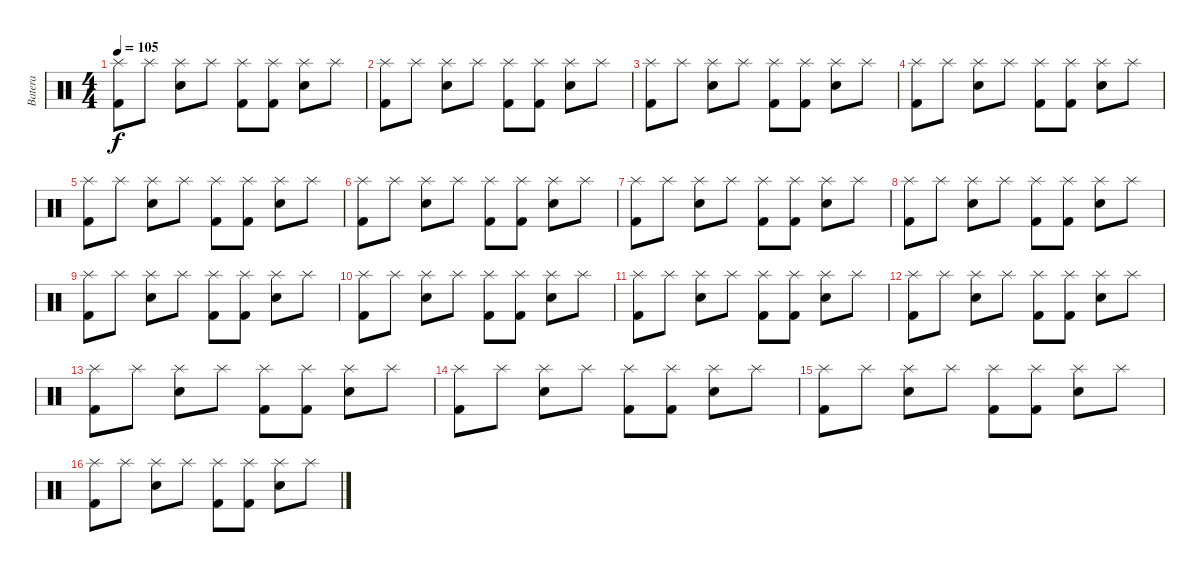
\track ("Batera" "Batera") {instrument percussion}
\staff {score}
\articulation defaults
\ts (4 4)
\tempo 105
\clef neutral
\ks c
("Splash (hit)" "Kick (hit) 2").8{dy f} "Splash (hit)".8 ("Splash (hit)" "Snare (hit) 2").8 "Splash (hit)".8 ("Splash (hit)" "Kick (hit) 2").8 ("Splash (hit)" "Kick (hit) 2").8 ("Splash (hit)" "Snare (hit) 2").8 "Splash (hit)".8 |
("Splash (hit)" "Kick (hit) 2").8 "Splash (hit)".8 ("Splash (hit)" "Snare (hit) 2").8 "Splash (hit)".8 ("Splash (hit)" "Kick (hit) 2").8 ("Splash (hit)" "Kick (hit) 2").8 ("Splash (hit)" "Snare (hit) 2").8 "Splash (hit)".8 |
("Splash (hit)" "Kick (hit) 2").8 "Splash (hit)".8 ("Splash (hit)" "Snare (hit) 2").8 "Splash (hit)".8 ("Splash (hit)" "Kick (hit) 2").8 ("Splash (hit)" "Kick (hit) 2").8 ("Splash (hit)" "Snare (hit) 2").8 "Splash (hit)".8 |
("Splash (hit)" "Kick (hit) 2").8 "Splash (hit)".8 ("Splash (hit)" "Snare (hit) 2").8 "Splash (hit)".8 ("Splash (hit)" "Kick (hit) 2").8 ("Splash (hit)" "Kick (hit) 2").8 ("Splash (hit)" "Snare (hit) 2").8 "Splash (hit)".8 |
("Splash (hit)" "Kick (hit) 2").8 "Splash (hit)".8 ("Splash (hit)" "Snare (hit) 2").8 "Splash (hit)".8 ("Splash (hit)" "Kick (hit) 2").8 ("Splash (hit)" "Kick (hit) 2").8 ("Splash (hit)" "Snare (hit) 2").8 "Splash (hit)".8 |
("Splash (hit)" "Kick (hit) 2").8 "Splash (hit)".8 ("Splash (hit)" "Snare (hit) 2").8 "Splash (hit)".8 ("Splash (hit)" "Kick (hit) 2").8 ("Splash (hit)" "Kick (hit) 2").8 ("Splash (hit)" "Snare (hit) 2").8 "Splash (hit)".8 |
("Splash (hit)" "Kick (hit) 2").8 "Splash (hit)".8 ("Splash (hit)" "Snare (hit) 2").8 "Splash (hit)".8 ("Splash (hit)" "Kick (hit) 2").8 ("Splash (hit)" "Kick (hit) 2").8 ("Splash (hit)" "Snare (hit) 2").8 "Splash (hit)".8 |
("Splash (hit)" "Kick (hit) 2").8 "Splash (hit)".8 ("Splash (hit)" "Snare (hit) 2").8 "Splash (hit)".8 ("Splash (hit)" "Kick (hit) 2").8 ("Splash (hit)" "Kick (hit) 2").8 ("Splash (hit)" "Snare (hit) 2").8 "Splash (hit)".8 |
("Splash (hit)" "Kick (hit) 2").8 "Splash (hit)".8 ("Splash (hit)" "Snare (hit) 2").8 "Splash (hit)".8 ("Splash (hit)" "Kick (hit) 2").8 ("Splash (hit)" "Kick (hit) 2").8 ("Splash (hit)" "Snare (hit) 2").8 "Splash (hit)".8 |
("Splash (hit)" "Kick (hit) 2").8 "Splash (hit)".8 ("Splash (hit)" "Snare (hit) 2").8 "Splash (hit)".8 ("Splash (hit)" "Kick (hit) 2").8 ("Splash (hit)" "Kick (hit) 2").8 ("Splash (hit)" "Snare (hit) 2").8 "Splash (hit)".8 |
("Splash (hit)" "Kick (hit) 2").8 "Splash (hit)".8 ("Splash (hit)" "Snare (hit) 2").8 "Splash (hit)".8 ("Splash (hit)" "Kick (hit) 2").8 ("Splash (hit)" "Kick (hit) 2").8 ("Splash (hit)" "Snare (hit) 2").8 "Splash (hit)".8 |
("Splash (hit)" "Kick (hit) 2").8 "Splash (hit)".8 ("Splash (hit)" "Snare (hit) 2").8 "Splash (hit)".8 ("Splash (hit)" "Kick (hit) 2").8 ("Splash (hit)" "Kick (hit) 2").8 ("Splash (hit)" "Snare (hit) 2").8 "Splash (hit)".8 |
("Splash (hit)" "Kick (hit) 2").8 "Splash (hit)".8 ("Splash (hit)" "Snare (hit) 2").8 "Splash (hit)".8 ("Splash (hit)" "Kick (hit) 2").8 ("Splash (hit)" "Kick (hit) 2").8 ("Splash (hit)" "Snare (hit) 2").8 "Splash (hit)".8 |
("Splash (hit)" "Kick (hit) 2").8 "Splash (hit)".8 ("Splash (hit)" "Snare (hit) 2").8 "Splash (hit)".8 ("Splash (hit)" "Kick (hit) 2").8 ("Splash (hit)" "Kick (hit) 2").8 ("Splash (hit)" "Snare (hit) 2").8 "Splash (hit)".8 |
("Splash (hit)" "Kick (hit) 2").8 "Splash (hit)".8 ("Splash (hit)" "Snare (hit) 2").8 "Splash (hit)".8 ("Splash (hit)" "Kick (hit) 2").8 ("Splash (hit)" "Kick (hit) 2").8 ("Splash (hit)" "Snare (hit) 2").8 "Splash (hit)".8 |
("Splash (hit)" "Kick (hit) 2").8 "Splash (hit)".8 ("Splash (hit)" "Snare (hit) 2").8 "Splash (hit)".8 ("Splash (hit)" "Kick (hit) 2").8 ("Splash (hit)" "Kick (hit) 2").8 ("Splash (hit)" "Snare (hit) 2").8 "Splash (hit)".8
